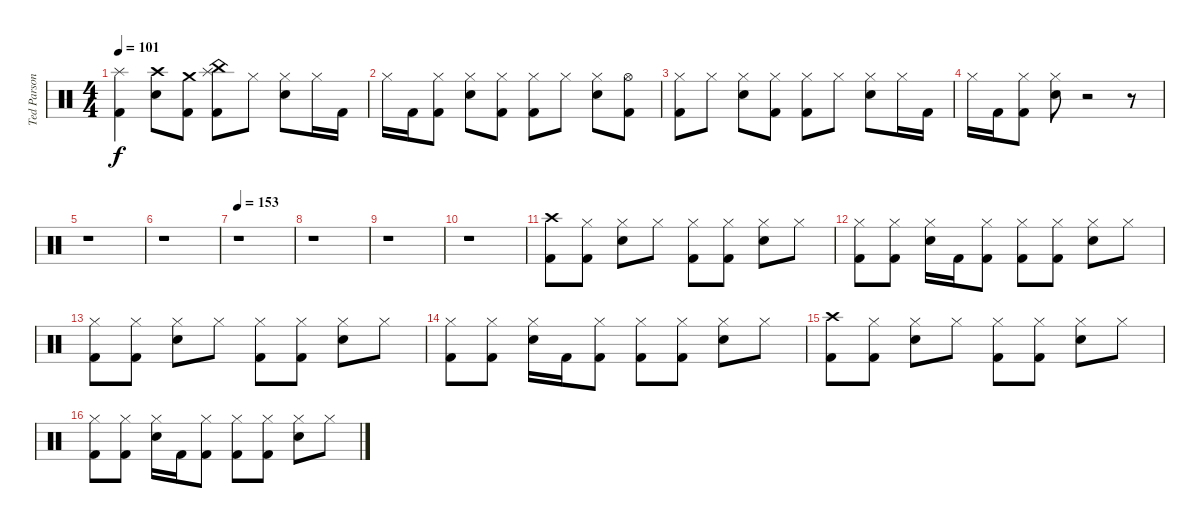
\track ("Ted Parsons" "Ted Parson") {instrument percussion}
\staff {score}
\articulation defaults
\ts (4 4)
\tempo 101
\clef neutral
\ks c
("Splash (hit)" "Kick (hit) 2").4{dy f} ("Crash high (hit)" "Electric Snare (hit)").8 ("Crash medium (hit)" "Kick (hit) 2").8 ("China (hit)" "Splash (hit)" "Kick (hit) 2").8 "Hi-Hat (closed)".8 ("Hi-Hat (closed)" "Electric Snare (hit)").8 "Hi-Hat (closed)".16 "Kick (hit) 2".16 |
"Hi-Hat (closed)".16 "Kick (hit) 2".16 ("Hi-Hat (closed)" "Kick (hit) 2").8 ("Hi-Hat (closed)" "Electric Snare (hit)").8 ("Hi-Hat (closed)" "Kick (hit) 2").8 ("Hi-Hat (closed)" "Kick (hit) 2").8 "Hi-Hat (closed)".8 ("Hi-Hat (closed)" "Electric Snare (hit)").8 ("Hi-Hat (open)" "Kick (hit) 2").8 |
("Hi-Hat (closed)" "Kick (hit) 2").8 "Hi-Hat (closed)".8 ("Hi-Hat (closed)" "Electric Snare (hit)").8 ("Hi-Hat (closed)" "Kick (hit) 2").8 ("Hi-Hat (closed)" "Kick (hit) 2").8 "Hi-Hat (closed)".8 ("Hi-Hat (closed)" "Electric Snare (hit)").8 "Hi-Hat (closed)".16 "Kick (hit) 2".16 |
"Hi-Hat (closed)".16 "Kick (hit) 2".16 ("Hi-Hat (closed)" "Kick (hit) 2").8 ("Hi-Hat (closed)" "Electric Snare (hit)").8 r.2 r.8 |
r.1 |
r.1 |
\tempo 153
r.1 |
r.1 |
r.1 |
r.1 |
("Crash high (hit)" "Kick (hit) 2").8 ("Hi-Hat (closed)" "Kick (hit) 2").8 ("Hi-Hat (closed)" "Electric Snare (hit)").8 "Hi-Hat (closed)".8 ("Hi-Hat (closed)" "Kick (hit) 2").8 ("Hi-Hat (closed)" "Kick (hit) 2").8 ("Hi-Hat (closed)" "Electric Snare (hit)").8 "Hi-Hat (closed)".8 |
("Hi-Hat (closed)" "Kick (hit) 2").8 ("Hi-Hat (closed)" "Kick (hit) 2").8 ("Hi-Hat (closed)" "Electric Snare (hit)").16 "Kick (hit) 2".16 ("Hi-Hat (closed)" "Kick (hit) 2").8 ("Hi-Hat (closed)" "Kick (hit) 2").8 ("Hi-Hat (closed)" "Kick (hit) 2").8 ("Hi-Hat (closed)" "Electric Snare (hit)").8 "Hi-Hat (closed)".8 |
("Hi-Hat (closed)" "Kick (hit) 2").8 ("Hi-Hat (closed)" "Kick (hit) 2").8 ("Hi-Hat (closed)" "Electric Snare (hit)").8 "Hi-Hat (closed)".8 ("Hi-Hat (closed)" "Kick (hit) 2").8 ("Hi-Hat (closed)" "Kick (hit) 2").8 ("Hi-Hat (closed)" "Electric Snare (hit)").8 "Hi-Hat (closed)".8 |
("Hi-Hat (closed)" "Kick (hit) 2").8 ("Hi-Hat (closed)" "Kick (hit) 2").8 ("Hi-Hat (closed)" "Electric Snare (hit)").16 "Kick (hit) 2".16 ("Hi-Hat (closed)" "Kick (hit) 2").8 ("Hi-Hat (closed)" "Kick (hit) 2").8 ("Hi-Hat (closed)" "Kick (hit) 2").8 ("Hi-Hat (closed)" "Electric Snare (hit)").8 "Hi-Hat (closed)".8 |
("Crash high (hit)" "Kick (hit) 2").8 ("Hi-Hat (closed)" "Kick (hit) 2").8 ("Hi-Hat (closed)" "Electric Snare (hit)").8 "Hi-Hat (closed)".8 ("Hi-Hat (closed)" "Kick (hit) 2").8 ("Hi-Hat (closed)" "Kick (hit) 2").8 ("Hi-Hat (closed)" "Electric Snare (hit)").8 "Hi-Hat (closed)".8 |
("Hi-Hat (closed)" "Kick (hit) 2").8 ("Hi-Hat (closed)" "Kick (hit) 2").8 ("Hi-Hat (closed)" "Electric Snare (hit)").16 "Kick (hit) 2".16 ("Hi-Hat (closed)" "Kick (hit) 2").8 ("Hi-Hat (closed)" "Kick (hit) 2").8 ("Hi-Hat (closed)" "Kick (hit) 2").8 ("Hi-Hat (closed)" "Electric Snare (hit)").8 "Hi-Hat (closed)".8
